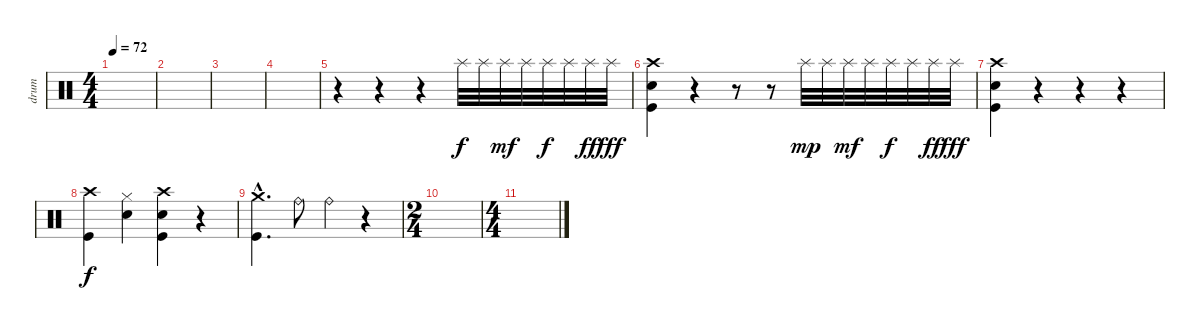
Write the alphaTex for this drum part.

\track ("drum" "drum") {instrument percussion}
\staff {score}
\articulation defaults
\ts (4 4)
\tempo 72
\clef neutral
\ks c
|
|
|
|
r.4 r.4 r.4 "Splash (hit)".32 "Splash (hit)".32 "Splash (hit)".32{dy mf} "Splash (hit)".32 "Splash (hit)".32{dy f} "Splash (hit)".32 "Splash (hit)".32{dy ff} "Splash (hit)".32{dy fff} |
("Crash high (hit)" "Snare (hit) 2" "Kick (hit)").4 r.4 r.8 r.8 "Splash (hit)".32{dy mp} "Splash (hit)".32 "Splash (hit)".32{dy mf} "Splash (hit)".32 "Splash (hit)".32{dy f} "Splash (hit)".32 "Splash (hit)".32{dy ff} "Splash (hit)".32{dy fff} |
("Crash high (hit)" "Snare (hit) 2" "Kick (hit)").4 r.4 r.4 r.4 |
("Crash high (hit)" "Kick (hit)").4{dy f} ("Hi-Hat (closed)" "Snare (hit) 2").4 ("Crash high (hit)" "Snare (hit) 2" "Kick (hit)").4 r.4 |
("Crash medium (hit)"{hac} "Kick (hit)"{hac}).4{d} "Ride (bell)".8 "Ride (bell)".4 r.4 |
\ts (2 4)
|
\ts (4 4)
